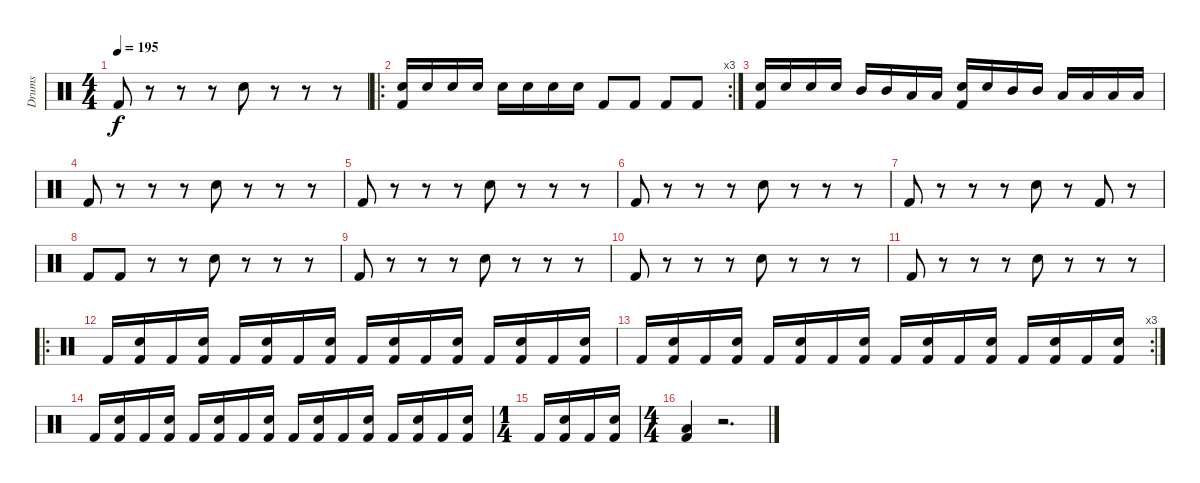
\track ("Drums" "Drums") {instrument percussion}
\staff {score}
\articulation defaults
\ts (4 4)
\tempo 195
\clef neutral
\ks c "Kick (hit) 2".8{dy f}
r.8 r.8 r.8 "Electric Snare (hit)".8 r.8 r.8 r.8 |
\ro
\rc 3
("Electric Snare (hit)" "Kick (hit) 2").16 "Electric Snare (hit)".16 "Electric Snare (hit)".16 "Electric Snare (hit)".16 "Electric Snare (hit)".16 "Electric Snare (hit)".16 "Electric Snare (hit)".16 "Electric Snare (hit)".16 "Kick (hit) 2".8 "Kick (hit) 2".8 "Kick (hit) 2".8 "Kick (hit) 2".8 |
("Electric Snare (hit)" "Kick (hit) 2").16 "Electric Snare (hit)".16 "Electric Snare (hit)".16 "Electric Snare (hit)".16 "Mid Tom (hit)".16 "Mid Tom (hit)".16 "Low Tom (hit)".16 "Low Tom (hit)".16 ("Electric Snare (hit)" "Kick (hit) 2").16 "Electric Snare (hit)".16 "Mid Tom (hit)".16 "Mid Tom (hit)".16 "Low Tom (hit)".16 "Low Tom (hit)".16 "Low Tom (hit)".16 "Low Tom (hit)".16 |
"Kick (hit) 2".8 r.8 r.8 r.8 "Electric Snare (hit)".8 r.8 r.8 r.8 |
"Kick (hit) 2".8 r.8 r.8 r.8 "Electric Snare (hit)".8 r.8 r.8 r.8 |
"Kick (hit) 2".8 r.8 r.8 r.8 "Electric Snare (hit)".8 r.8 r.8 r.8 |
"Kick (hit) 2".8 r.8 r.8 r.8 "Electric Snare (hit)".8 r.8 "Kick (hit) 2".8 r.8 |
"Kick (hit) 2".8 "Kick (hit) 2".8 r.8 r.8 "Electric Snare (hit)".8 r.8 r.8 r.8 |
"Kick (hit) 2".8 r.8 r.8 r.8 "Electric Snare (hit)".8 r.8 r.8 r.8 |
"Kick (hit) 2".8 r.8 r.8 r.8 "Electric Snare (hit)".8 r.8 r.8 r.8 |
"Kick (hit) 2".8 r.8 r.8 r.8 "Electric Snare (hit)".8 r.8 r.8 r.8 |
\ro "Kick (hit) 2".16
("Electric Snare (hit)" "Kick (hit) 2").16 "Kick (hit) 2".16 ("Electric Snare (hit)" "Kick (hit) 2").16 "Kick (hit) 2".16 ("Electric Snare (hit)" "Kick (hit) 2").16 "Kick (hit) 2".16 ("Electric Snare (hit)" "Kick (hit) 2").16 "Kick (hit) 2".16 ("Electric Snare (hit)" "Kick (hit) 2").16 "Kick (hit) 2".16 ("Electric Snare (hit)" "Kick (hit) 2").16 "Kick (hit) 2".16 ("Electric Snare (hit)" "Kick (hit) 2").16 "Kick (hit) 2".16 ("Electric Snare (hit)" "Kick (hit) 2").16 |
\rc 3 "Kick (hit) 2".16
("Electric Snare (hit)" "Kick (hit) 2").16 "Kick (hit) 2".16 ("Electric Snare (hit)" "Kick (hit) 2").16 "Kick (hit) 2".16 ("Electric Snare (hit)" "Kick (hit) 2").16 "Kick (hit) 2".16 ("Electric Snare (hit)" "Kick (hit) 2").16 "Kick (hit) 2".16 ("Electric Snare (hit)" "Kick (hit) 2").16 "Kick (hit) 2".16 ("Electric Snare (hit)" "Kick (hit) 2").16 "Kick (hit) 2".16 ("Electric Snare (hit)" "Kick (hit) 2").16 "Kick (hit) 2".16 ("Electric Snare (hit)" "Kick (hit) 2").16 |
"Kick (hit) 2".16 ("Electric Snare (hit)" "Kick (hit) 2").16 "Kick (hit) 2".16 ("Electric Snare (hit)" "Kick (hit) 2").16 "Kick (hit) 2".16 ("Electric Snare (hit)" "Kick (hit) 2").16 "Kick (hit) 2".16 ("Electric Snare (hit)" "Kick (hit) 2").16 "Kick (hit) 2".16 ("Electric Snare (hit)" "Kick (hit) 2").16 "Kick (hit) 2".16 ("Electric Snare (hit)" "Kick (hit) 2").16 "Kick (hit) 2".16 ("Electric Snare (hit)" "Kick (hit) 2").16 "Kick (hit) 2".16 ("Electric Snare (hit)" "Kick (hit) 2").16 |
\ts (1 4)
"Kick (hit) 2".16 ("Electric Snare (hit)" "Kick (hit) 2").16 "Kick (hit) 2".16 ("Electric Snare (hit)" "Kick (hit) 2").16 |
\ts (4 4)
("Low Floor Tom (hit)" "Kick (hit) 2").4 r.2{d}
